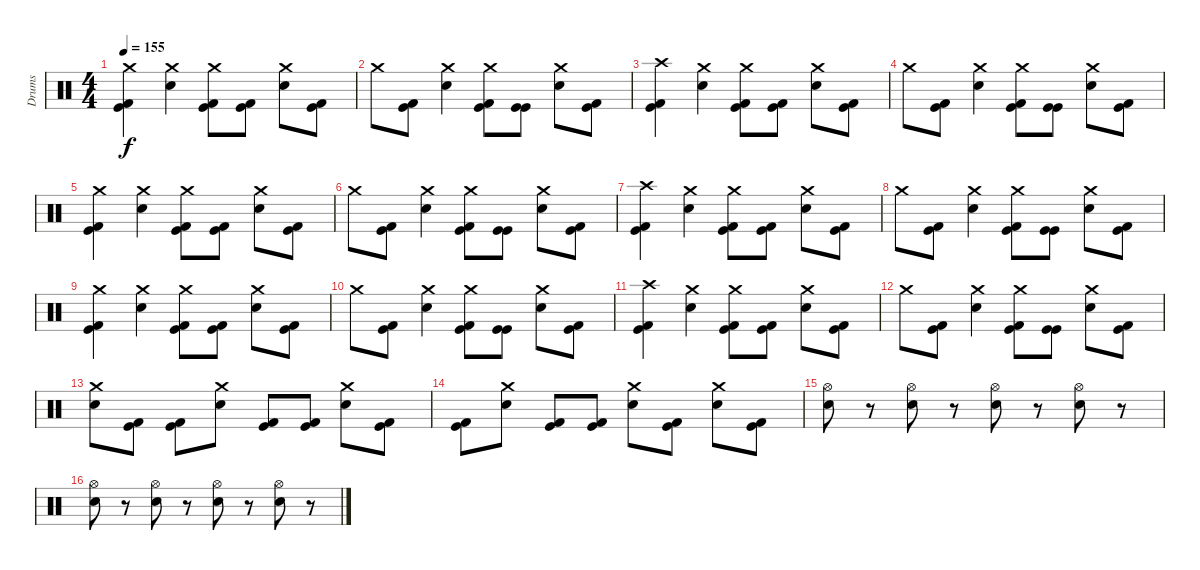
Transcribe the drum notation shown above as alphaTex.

\track ("Drums" "Drums") {instrument percussion}
\staff {score}
\articulation defaults
\ts (4 4)
\tempo 155
\clef neutral
\ks c
("Crash medium (hit)" "Kick (hit)" "Kick (hit) 2").4{dy f} ("Crash medium (hit)" "Electric Snare (hit)").4 ("Crash medium (hit)" "Kick (hit)" "Kick (hit) 2").8 ("Kick (hit)" "Kick (hit) 2").8 ("Crash medium (hit)" "Electric Snare (hit)").8 ("Kick (hit)" "Kick (hit) 2").8 |
"Crash medium (hit)".8 ("Kick (hit)" "Kick (hit) 2").8 ("Crash medium (hit)" "Electric Snare (hit)").4 ("Crash medium (hit)" "Kick (hit)" "Kick (hit) 2").8 ("Kick (hit)" "Kick (hit)").8 ("Crash medium (hit)" "Electric Snare (hit)").8 ("Kick (hit)" "Kick (hit) 2").8 |
("Crash high (hit)" "Kick (hit)" "Kick (hit) 2").4 ("Crash medium (hit)" "Electric Snare (hit)").4 ("Crash medium (hit)" "Kick (hit)" "Kick (hit) 2").8 ("Kick (hit)" "Kick (hit) 2").8 ("Crash medium (hit)" "Electric Snare (hit)").8 ("Kick (hit)" "Kick (hit) 2").8 |
"Crash medium (hit)".8 ("Kick (hit)" "Kick (hit) 2").8 ("Crash medium (hit)" "Electric Snare (hit)").4 ("Crash medium (hit)" "Kick (hit)" "Kick (hit) 2").8 ("Kick (hit)" "Kick (hit)").8 ("Crash medium (hit)" "Electric Snare (hit)").8 ("Kick (hit)" "Kick (hit) 2").8 |
("Crash medium (hit)" "Kick (hit)" "Kick (hit) 2").4 ("Crash medium (hit)" "Electric Snare (hit)").4 ("Crash medium (hit)" "Kick (hit)" "Kick (hit) 2").8 ("Kick (hit)" "Kick (hit) 2").8 ("Crash medium (hit)" "Electric Snare (hit)").8 ("Kick (hit)" "Kick (hit) 2").8 |
"Crash medium (hit)".8 ("Kick (hit)" "Kick (hit) 2").8 ("Crash medium (hit)" "Electric Snare (hit)").4 ("Crash medium (hit)" "Kick (hit)" "Kick (hit) 2").8 ("Kick (hit)" "Kick (hit)").8 ("Crash medium (hit)" "Electric Snare (hit)").8 ("Kick (hit)" "Kick (hit) 2").8 |
("Crash high (hit)" "Kick (hit)" "Kick (hit) 2").4 ("Crash medium (hit)" "Electric Snare (hit)").4 ("Crash medium (hit)" "Kick (hit)" "Kick (hit) 2").8 ("Kick (hit)" "Kick (hit) 2").8 ("Crash medium (hit)" "Electric Snare (hit)").8 ("Kick (hit)" "Kick (hit) 2").8 |
"Crash medium (hit)".8 ("Kick (hit)" "Kick (hit) 2").8 ("Crash medium (hit)" "Electric Snare (hit)").4 ("Crash medium (hit)" "Kick (hit)" "Kick (hit) 2").8 ("Kick (hit)" "Kick (hit)").8 ("Crash medium (hit)" "Electric Snare (hit)").8 ("Kick (hit)" "Kick (hit) 2").8 |
("Crash medium (hit)" "Kick (hit)" "Kick (hit) 2").4 ("Crash medium (hit)" "Electric Snare (hit)").4 ("Crash medium (hit)" "Kick (hit)" "Kick (hit) 2").8 ("Kick (hit)" "Kick (hit) 2").8 ("Crash medium (hit)" "Electric Snare (hit)").8 ("Kick (hit)" "Kick (hit) 2").8 |
"Crash medium (hit)".8 ("Kick (hit)" "Kick (hit) 2").8 ("Crash medium (hit)" "Electric Snare (hit)").4 ("Crash medium (hit)" "Kick (hit)" "Kick (hit) 2").8 ("Kick (hit)" "Kick (hit)").8 ("Crash medium (hit)" "Electric Snare (hit)").8 ("Kick (hit)" "Kick (hit) 2").8 |
("Crash high (hit)" "Kick (hit)" "Kick (hit) 2").4 ("Crash medium (hit)" "Electric Snare (hit)").4 ("Crash medium (hit)" "Kick (hit)" "Kick (hit) 2").8 ("Kick (hit)" "Kick (hit) 2").8 ("Crash medium (hit)" "Electric Snare (hit)").8 ("Kick (hit)" "Kick (hit) 2").8 |
"Crash medium (hit)".8 ("Kick (hit)" "Kick (hit) 2").8 ("Crash medium (hit)" "Electric Snare (hit)").4 ("Crash medium (hit)" "Kick (hit)" "Kick (hit) 2").8 ("Kick (hit)" "Kick (hit)").8 ("Crash medium (hit)" "Electric Snare (hit)").8 ("Kick (hit)" "Kick (hit) 2").8 |
("Crash medium (hit)" "Electric Snare (hit)").8 ("Kick (hit)" "Kick (hit) 2").8 ("Kick (hit)" "Kick (hit) 2").8 ("Crash medium (hit)" "Electric Snare (hit)").8 ("Kick (hit)" "Kick (hit) 2").8 ("Kick (hit)" "Kick (hit) 2").8 ("Crash medium (hit)" "Electric Snare (hit)").8 ("Kick (hit)" "Kick (hit) 2").8 |
("Kick (hit)" "Kick (hit) 2").8 ("Crash medium (hit)" "Electric Snare (hit)").8 ("Kick (hit)" "Kick (hit) 2").8 ("Kick (hit)" "Kick (hit) 2").8 ("Crash medium (hit)" "Electric Snare (hit)").8 ("Kick (hit)" "Kick (hit) 2").8 ("Crash medium (hit)" "Electric Snare (hit)").8 ("Kick (hit)" "Kick (hit) 2").8 |
("Hi-Hat (open)" "Electric Snare (hit)").8 r.8 ("Hi-Hat (open)" "Electric Snare (hit)").8 r.8 ("Hi-Hat (open)" "Electric Snare (hit)").8 r.8 ("Hi-Hat (open)" "Electric Snare (hit)").8 r.8 |
("Hi-Hat (open)" "Electric Snare (hit)").8 r.8 ("Hi-Hat (open)" "Electric Snare (hit)").8 r.8 ("Hi-Hat (open)" "Electric Snare (hit)").8 r.8 ("Hi-Hat (open)" "Electric Snare (hit)").8 r.8
